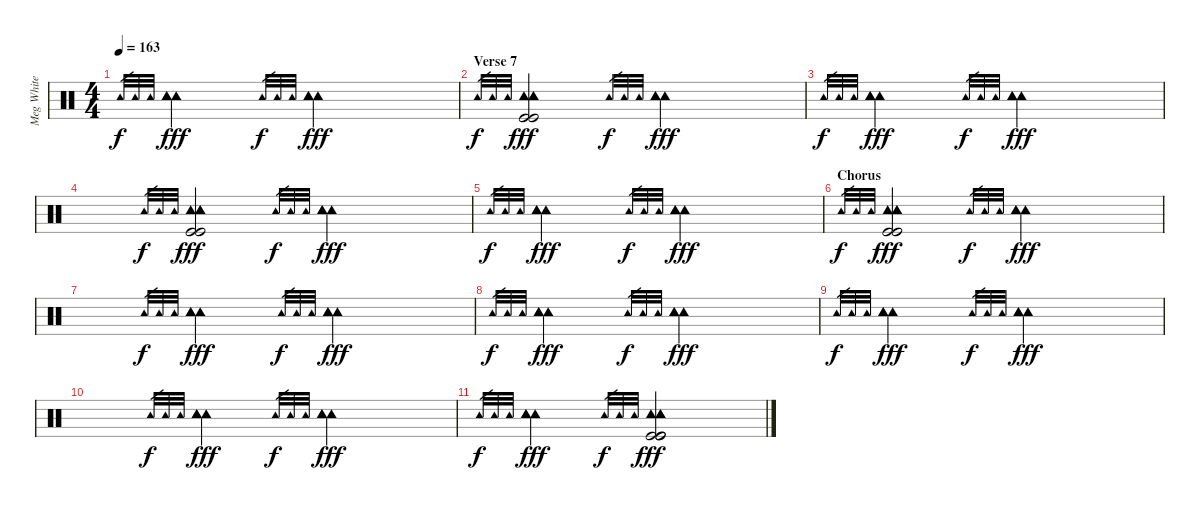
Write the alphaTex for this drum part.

\track ("Meg White" "Meg White") {instrument percussion}
\staff {score}
\articulation defaults
\ts (4 4)
\tempo 163
\clef neutral
\ks c "Tambourine (hit)".32{gr dy f} "Tambourine (hit)".32{gr} "Tambourine (hit)".32{gr}
("Tambourine (hit)" "Tambourine (hit)" "Tambourine (hit)").2{dy fff} "Tambourine (hit)".32{gr dy f} "Tambourine (hit)".32{gr} "Tambourine (hit)".32{gr} ("Tambourine (hit)" "Tambourine (hit)" "Tambourine (hit)").2{dy fff} |
\section ("" "Verse 7")
"Tambourine (hit)".32{gr dy f} "Tambourine (hit)".32{gr} "Tambourine (hit)".32{gr} ("Tambourine (hit)" "Tambourine (hit)" "Tambourine (hit)" "Kick (hit)" "Kick (hit)").2{dy fff} "Tambourine (hit)".32{gr dy f} "Tambourine (hit)".32{gr} "Tambourine (hit)".32{gr} ("Tambourine (hit)" "Tambourine (hit)" "Tambourine (hit)").2{dy fff} |
"Tambourine (hit)".32{gr dy f} "Tambourine (hit)".32{gr} "Tambourine (hit)".32{gr} ("Tambourine (hit)" "Tambourine (hit)" "Tambourine (hit)").2{dy fff} "Tambourine (hit)".32{gr dy f} "Tambourine (hit)".32{gr} "Tambourine (hit)".32{gr} ("Tambourine (hit)" "Tambourine (hit)" "Tambourine (hit)").2{dy fff} |
"Tambourine (hit)".32{gr dy f} "Tambourine (hit)".32{gr} "Tambourine (hit)".32{gr} ("Tambourine (hit)" "Tambourine (hit)" "Tambourine (hit)" "Kick (hit)" "Kick (hit)").2{dy fff} "Tambourine (hit)".32{gr dy f} "Tambourine (hit)".32{gr} "Tambourine (hit)".32{gr} ("Tambourine (hit)" "Tambourine (hit)" "Tambourine (hit)").2{dy fff} |
"Tambourine (hit)".32{gr dy f} "Tambourine (hit)".32{gr} "Tambourine (hit)".32{gr} ("Tambourine (hit)" "Tambourine (hit)" "Tambourine (hit)").2{dy fff} "Tambourine (hit)".32{gr dy f} "Tambourine (hit)".32{gr} "Tambourine (hit)".32{gr} ("Tambourine (hit)" "Tambourine (hit)" "Tambourine (hit)").2{dy fff} |
\section ("" "Chorus")
"Tambourine (hit)".32{gr dy f} "Tambourine (hit)".32{gr} "Tambourine (hit)".32{gr} ("Tambourine (hit)" "Tambourine (hit)" "Tambourine (hit)" "Kick (hit)" "Kick (hit)").2{dy fff} "Tambourine (hit)".32{gr dy f} "Tambourine (hit)".32{gr} "Tambourine (hit)".32{gr} ("Tambourine (hit)" "Tambourine (hit)" "Tambourine (hit)").2{dy fff} |
"Tambourine (hit)".32{gr dy f} "Tambourine (hit)".32{gr} "Tambourine (hit)".32{gr} ("Tambourine (hit)" "Tambourine (hit)" "Tambourine (hit)").2{dy fff} "Tambourine (hit)".32{gr dy f} "Tambourine (hit)".32{gr} "Tambourine (hit)".32{gr} ("Tambourine (hit)" "Tambourine (hit)" "Tambourine (hit)").2{dy fff} |
"Tambourine (hit)".32{gr dy f} "Tambourine (hit)".32{gr} "Tambourine (hit)".32{gr} ("Tambourine (hit)" "Tambourine (hit)" "Tambourine (hit)").2{dy fff} "Tambourine (hit)".32{gr dy f} "Tambourine (hit)".32{gr} "Tambourine (hit)".32{gr} ("Tambourine (hit)" "Tambourine (hit)" "Tambourine (hit)").2{dy fff} |
"Tambourine (hit)".32{gr dy f} "Tambourine (hit)".32{gr} "Tambourine (hit)".32{gr} ("Tambourine (hit)" "Tambourine (hit)" "Tambourine (hit)").2{dy fff} "Tambourine (hit)".32{gr dy f} "Tambourine (hit)".32{gr} "Tambourine (hit)".32{gr} ("Tambourine (hit)" "Tambourine (hit)" "Tambourine (hit)").2{dy fff} |
"Tambourine (hit)".32{gr dy f} "Tambourine (hit)".32{gr} "Tambourine (hit)".32{gr} ("Tambourine (hit)" "Tambourine (hit)" "Tambourine (hit)").2{dy fff} "Tambourine (hit)".32{gr dy f} "Tambourine (hit)".32{gr} "Tambourine (hit)".32{gr} ("Tambourine (hit)" "Tambourine (hit)" "Tambourine (hit)").2{dy fff} |
"Tambourine (hit)".32{gr dy f} "Tambourine (hit)".32{gr} "Tambourine (hit)".32{gr} ("Tambourine (hit)" "Tambourine (hit)" "Tambourine (hit)").2{dy fff} "Tambourine (hit)".32{gr dy f} "Tambourine (hit)".32{gr} "Tambourine (hit)".32{gr} ("Kick (hit)" "Tambourine (hit)" "Tambourine (hit)" "Tambourine (hit)" "Kick (hit)" "Kick (hit)").2{dy fff}
